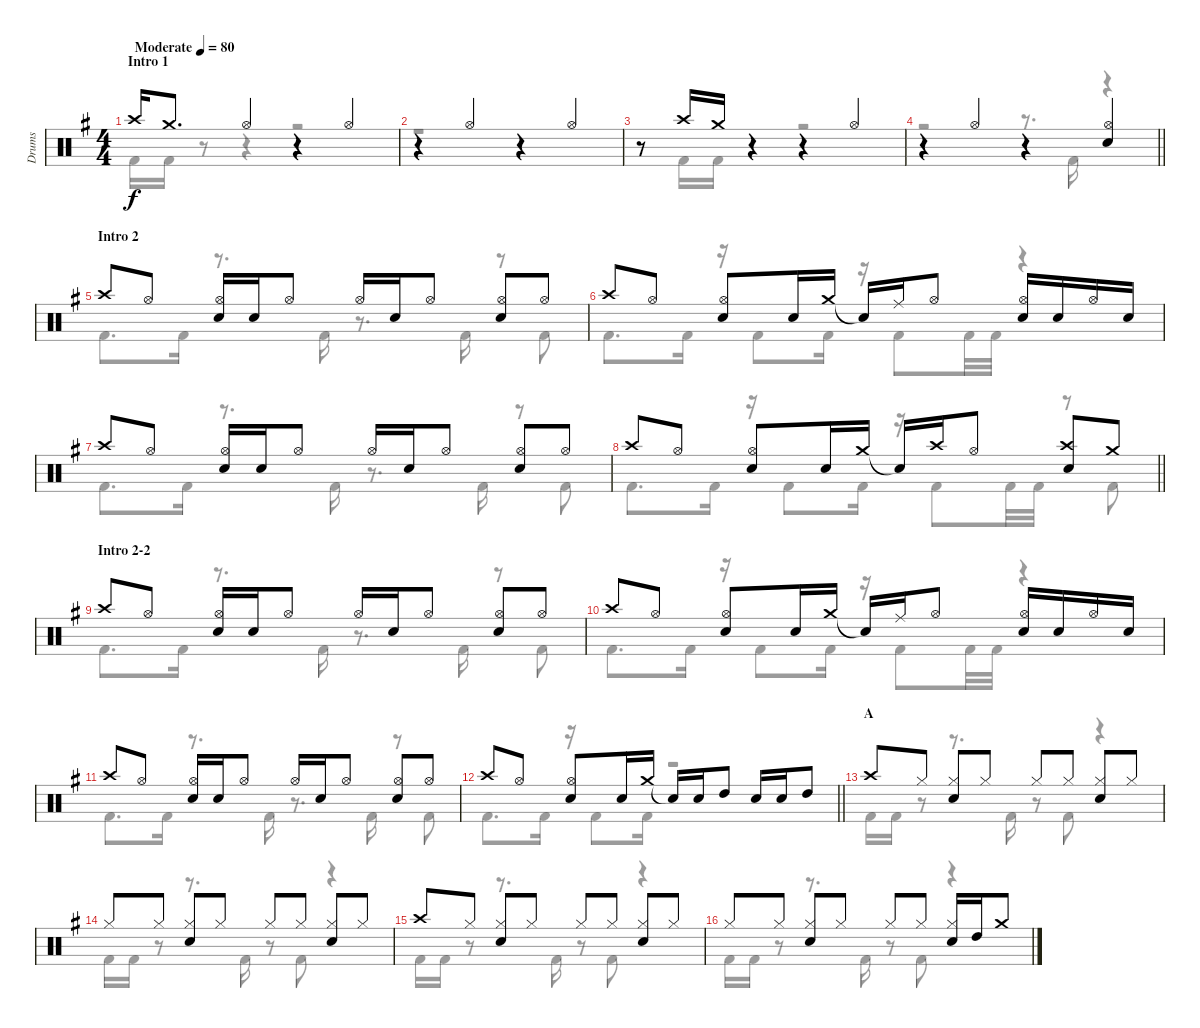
\track ("Drums" "Drums") {instrument percussion}
\staff {score}
\articulation defaults
\voice
\ts (4 4)
\section ("" "Intro 1")
\tempo (80 "Moderate")
\clef neutral
\ks g "Crash high (hit)".16{dy f} "Crash medium (hit)".8{d} "Hi-Hat (open)".4
r.4 "Hi-Hat (open)".4 |
r.4 "Hi-Hat (open)".4 r.4 "Hi-Hat (open)".4 |
r.8 "Crash high (hit)".16 "Crash medium (hit)".16 r.4 r.4 "Hi-Hat (open)".4 |
\barLineRight lightlight
r.4 "Hi-Hat (open)".4 r.4 ("Hi-Hat (open)" "Snare (hit) 2").4 |
\section ("" "Intro 2")
"Crash high (hit)".8 "Hi-Hat (open)".8 ("Hi-Hat (open)" "Snare (hit) 2").16 "Snare (hit) 2".16 "Hi-Hat (open)".8 "Hi-Hat (open)".16 "Snare (hit) 2".16 "Hi-Hat (open)".8 ("Hi-Hat (open)" "Snare (hit) 2").8 "Hi-Hat (open)".8 |
"Crash high (hit)".8 "Hi-Hat (open)".8 ("Hi-Hat (open)" "Snare (hit) 2").8 "Snare (hit) 2".16 "Crash medium (hit)".16 "Snare (hit)"{t}.16 "Ride (middle)".16 "Hi-Hat (open)".8 ("Hi-Hat (open)" "Snare (hit) 2").16 "Snare (hit) 2".16 "Hi-Hat (open)".16 "Snare (hit) 2".16 |
"Crash high (hit)".8 "Hi-Hat (open)".8 ("Hi-Hat (open)" "Snare (hit) 2").16 "Snare (hit) 2".16 "Hi-Hat (open)".8 "Hi-Hat (open)".16 "Snare (hit) 2".16 "Hi-Hat (open)".8 ("Hi-Hat (open)" "Snare (hit) 2").8 "Hi-Hat (open)".8 |
\barLineRight lightlight "Crash high (hit)".8 "Hi-Hat (open)".8
("Hi-Hat (open)" "Snare (hit) 2").8 "Snare (hit) 2".16 "Crash medium (hit)".16 "Snare (hit)"{t}.16 "Crash high (hit)".16 "Hi-Hat (open)".8 ("Crash high (hit)" "Snare (hit) 2").8 "Crash medium (hit)".8 |
\section ("" "Intro 2-2")
"Crash high (hit)".8 "Hi-Hat (open)".8 ("Hi-Hat (open)" "Snare (hit) 2").16 "Snare (hit) 2".16 "Hi-Hat (open)".8 "Hi-Hat (open)".16 "Snare (hit) 2".16 "Hi-Hat (open)".8 ("Hi-Hat (open)" "Snare (hit) 2").8 "Hi-Hat (open)".8 |
"Crash high (hit)".8 "Hi-Hat (open)".8 ("Hi-Hat (open)" "Snare (hit) 2").8 "Snare (hit) 2".16 "Crash medium (hit)".16 "Snare (hit)"{t}.16 "Ride (middle)".16 "Hi-Hat (open)".8 ("Hi-Hat (open)" "Snare (hit) 2").16 "Snare (hit) 2".16 "Hi-Hat (open)".16 "Snare (hit) 2".16 |
"Crash high (hit)".8 "Hi-Hat (open)".8 ("Hi-Hat (open)" "Snare (hit) 2").16 "Snare (hit) 2".16 "Hi-Hat (open)".8 "Hi-Hat (open)".16 "Snare (hit) 2".16 "Hi-Hat (open)".8 ("Hi-Hat (open)" "Snare (hit) 2").8 "Hi-Hat (open)".8 |
\barLineRight lightlight "Crash high (hit)".8 "Hi-Hat (open)".8
("Hi-Hat (open)" "Snare (hit) 2").8 "Snare (hit) 2".16 "Crash medium (hit)".16 "Snare (hit)"{t}.16 "Snare (hit) 2".16 "High Tom (hit)".8 "Snare (hit) 2".16 "Snare (hit) 2".16 "High Tom (hit)".8 |
\section ("" "A")
"Crash high (hit)".8 "Hi-Hat (closed)".8 ("Hi-Hat (closed)" "Snare (hit) 2").8 "Hi-Hat (closed)".8 "Hi-Hat (closed)".8 "Hi-Hat (closed)".8 ("Hi-Hat (closed)" "Snare (hit) 2").8 "Hi-Hat (closed)".8 |
"Hi-Hat (closed)".8 "Hi-Hat (closed)".8 ("Hi-Hat (closed)" "Snare (hit) 2").8 "Hi-Hat (closed)".8 "Hi-Hat (closed)".8 "Hi-Hat (closed)".8 ("Hi-Hat (closed)" "Snare (hit) 2").8 "Hi-Hat (closed)".8 |
"Crash high (hit)".8 "Hi-Hat (closed)".8 ("Hi-Hat (closed)" "Snare (hit) 2").8 "Hi-Hat (closed)".8 "Hi-Hat (closed)".8 "Hi-Hat (closed)".8 ("Hi-Hat (closed)" "Snare (hit) 2").8 "Hi-Hat (closed)".8 |
"Hi-Hat (closed)".8 "Hi-Hat (closed)".8 ("Hi-Hat (closed)" "Snare (hit) 2").8 "Hi-Hat (closed)".8 "Hi-Hat (closed)".8 "Hi-Hat (closed)".8 ("Hi-Hat (closed)" "Snare (hit) 2").16 "High Tom (hit)".16 "Crash medium (hit)".8
\voice
\clef neutral
\ottava regular
\simile none
\ks g "Kick (hit) 2".16{dy f} "Kick (hit) 2".16
r.8 r.4 r.2 |
r.1 |
r.8 "Kick (hit) 2".16 "Kick (hit) 2".16 r.4 r.2 |
\barLineRight lightlight
r.2 r.8{d} "Kick (hit) 2".16 r.4 |
"Kick (hit) 2".8{d} "Kick (hit) 2".16 r.8{d} "Kick (hit) 2".16 r.8{d} "Kick (hit) 2".16 r.8 "Kick (hit) 2".8 |
"Kick (hit) 2".8{d} "Kick (hit) 2".16 r.16 "Kick (hit) 2".8 "Kick (hit) 2".16 r.16 "Kick (hit) 2".8 "Kick (hit) 2".32 "Kick (hit) 2".32 r.4 |
"Kick (hit) 2".8{d} "Kick (hit) 2".16 r.8{d} "Kick (hit) 2".16 r.8{d} "Kick (hit) 2".16 r.8 "Kick (hit) 2".8 |
\barLineRight lightlight "Kick (hit) 2".8{d} "Kick (hit) 2".16
r.16 "Kick (hit) 2".8 "Kick (hit) 2".16 r.16 "Kick (hit) 2".8 "Kick (hit) 2".32 "Kick (hit) 2".32 r.8 "Kick (hit) 2".8 |
"Kick (hit) 2".8{d} "Kick (hit) 2".16 r.8{d} "Kick (hit) 2".16 r.8{d} "Kick (hit) 2".16 r.8 "Kick (hit) 2".8 |
"Kick (hit) 2".8{d} "Kick (hit) 2".16 r.16 "Kick (hit) 2".8 "Kick (hit) 2".16 r.16 "Kick (hit) 2".8 "Kick (hit) 2".32 "Kick (hit) 2".32 r.4 |
"Kick (hit) 2".8{d} "Kick (hit) 2".16 r.8{d} "Kick (hit) 2".16 r.8{d} "Kick (hit) 2".16 r.8 "Kick (hit) 2".8 |
\barLineRight lightlight "Kick (hit) 2".8{d} "Kick (hit) 2".16
r.16 "Kick (hit) 2".8 "Kick (hit) 2".16 r.2 |
"Kick (hit) 2".16 "Kick (hit) 2".16 r.8 r.8{d} "Kick (hit) 2".16 r.8 "Kick (hit) 2".8 r.4 |
"Kick (hit) 2".16 "Kick (hit) 2".16 r.8 r.8{d} "Kick (hit) 2".16 r.8 "Kick (hit) 2".8 r.4 |
"Kick (hit) 2".16 "Kick (hit) 2".16 r.8 r.8{d} "Kick (hit) 2".16 r.8 "Kick (hit) 2".8 r.4 |
"Kick (hit) 2".16 "Kick (hit) 2".16 r.8 r.8{d} "Kick (hit) 2".16 r.8 "Kick (hit) 2".8 r.4
